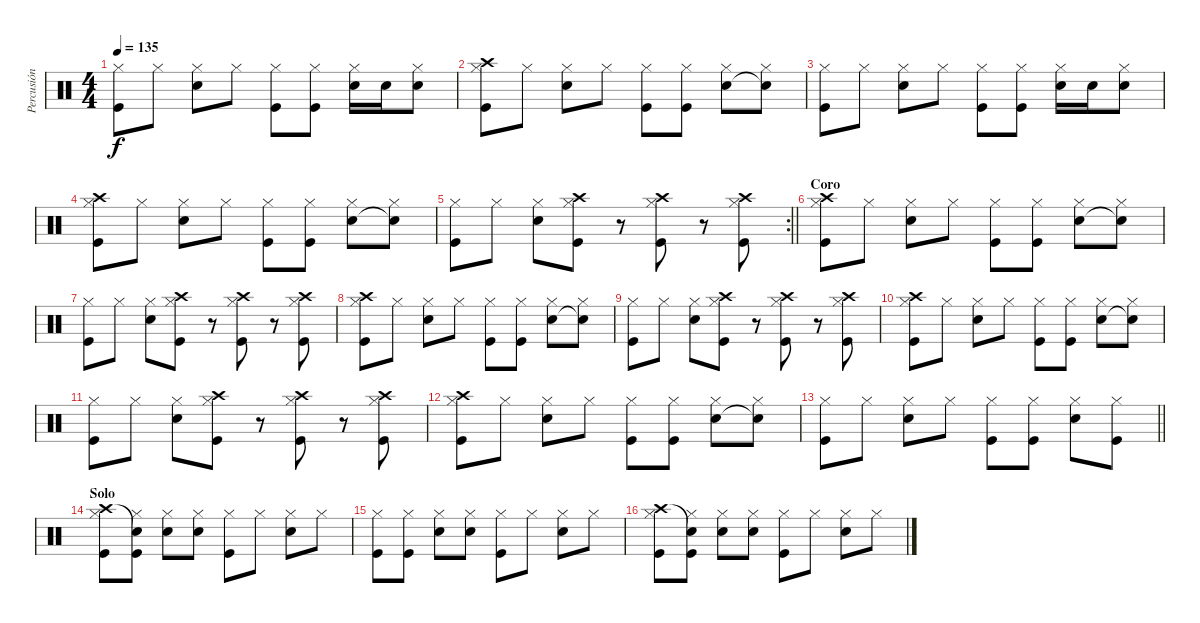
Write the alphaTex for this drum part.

\track ("Percusión" "Percusión") {instrument percussion}
\staff {score}
\articulation defaults
\ts (4 4)
\tempo 135
\clef neutral
\ks c
("Hi-Hat (closed)" "Kick (hit)").8{dy f} "Hi-Hat (closed)".8 ("Hi-Hat (closed)" "Snare (hit) 2").8 "Hi-Hat (closed)".8 ("Hi-Hat (closed)" "Kick (hit)").8 ("Hi-Hat (closed)" "Kick (hit)").8 ("Hi-Hat (closed)" "Snare (hit) 2").16 "Snare (hit) 2".16 ("Hi-Hat (closed)" "Snare (hit) 2").8 |
("Hi-Hat (closed)" "Crash high (hit)" "Kick (hit)").8 "Hi-Hat (closed)".8 ("Hi-Hat (closed)" "Snare (hit) 2").8 "Hi-Hat (closed)".8 ("Hi-Hat (closed)" "Kick (hit)").8 ("Hi-Hat (closed)" "Kick (hit)").8 ("Hi-Hat (closed)" "Snare (hit) 2").8 ("Hi-Hat (closed)" "Snare (hit)"{t}).8 |
("Hi-Hat (closed)" "Kick (hit)").8 "Hi-Hat (closed)".8 ("Hi-Hat (closed)" "Snare (hit) 2").8 "Hi-Hat (closed)".8 ("Hi-Hat (closed)" "Kick (hit)").8 ("Hi-Hat (closed)" "Kick (hit)").8 ("Hi-Hat (closed)" "Snare (hit) 2").16 "Snare (hit) 2".16 ("Hi-Hat (closed)" "Snare (hit) 2").8 |
("Hi-Hat (closed)" "Crash high (hit)" "Kick (hit)").8 "Hi-Hat (closed)".8 ("Hi-Hat (closed)" "Snare (hit) 2").8 "Hi-Hat (closed)".8 ("Hi-Hat (closed)" "Kick (hit)").8 ("Hi-Hat (closed)" "Kick (hit)").8 ("Hi-Hat (closed)" "Snare (hit) 2").8 ("Hi-Hat (closed)" "Snare (hit)"{t}).8 |
\rc 2
\barLineRight lightlight
("Hi-Hat (closed)" "Kick (hit)").8 "Hi-Hat (closed)".8 ("Hi-Hat (closed)" "Snare (hit) 2").8 ("Hi-Hat (closed)" "Crash high (hit)" "Kick (hit)").8 r.8 ("Hi-Hat (closed)" "Crash high (hit)" "Kick (hit)").8 r.8 ("Hi-Hat (closed)" "Crash high (hit)" "Kick (hit)").8 |
\section ("" "Coro")
("Hi-Hat (closed)" "Crash high (hit)" "Kick (hit)").8 "Hi-Hat (closed)".8 ("Hi-Hat (closed)" "Snare (hit) 2").8 "Hi-Hat (closed)".8 ("Hi-Hat (closed)" "Kick (hit)").8 ("Hi-Hat (closed)" "Kick (hit)").8 ("Hi-Hat (closed)" "Snare (hit) 2").8 ("Hi-Hat (closed)" "Snare (hit)"{t}).8 |
("Hi-Hat (closed)" "Kick (hit)").8 "Hi-Hat (closed)".8 ("Hi-Hat (closed)" "Snare (hit) 2").8 ("Hi-Hat (closed)" "Crash high (hit)" "Kick (hit)").8 r.8 ("Hi-Hat (closed)" "Crash high (hit)" "Kick (hit)").8 r.8 ("Hi-Hat (closed)" "Crash high (hit)" "Kick (hit)").8 |
("Hi-Hat (closed)" "Crash high (hit)" "Kick (hit)").8 "Hi-Hat (closed)".8 ("Hi-Hat (closed)" "Snare (hit) 2").8 "Hi-Hat (closed)".8 ("Hi-Hat (closed)" "Kick (hit)").8 ("Hi-Hat (closed)" "Kick (hit)").8 ("Hi-Hat (closed)" "Snare (hit) 2").8 ("Hi-Hat (closed)" "Snare (hit)"{t}).8 |
("Hi-Hat (closed)" "Kick (hit)").8 "Hi-Hat (closed)".8 ("Hi-Hat (closed)" "Snare (hit) 2").8 ("Hi-Hat (closed)" "Crash high (hit)" "Kick (hit)").8 r.8 ("Hi-Hat (closed)" "Crash high (hit)" "Kick (hit)").8 r.8 ("Hi-Hat (closed)" "Crash high (hit)" "Kick (hit)").8 |
("Hi-Hat (closed)" "Crash high (hit)" "Kick (hit)").8 "Hi-Hat (closed)".8 ("Hi-Hat (closed)" "Snare (hit) 2").8 "Hi-Hat (closed)".8 ("Hi-Hat (closed)" "Kick (hit)").8 ("Hi-Hat (closed)" "Kick (hit)").8 ("Hi-Hat (closed)" "Snare (hit) 2").8 ("Hi-Hat (closed)" "Snare (hit)"{t}).8 |
("Hi-Hat (closed)" "Kick (hit)").8 "Hi-Hat (closed)".8 ("Hi-Hat (closed)" "Snare (hit) 2").8 ("Hi-Hat (closed)" "Crash high (hit)" "Kick (hit)").8 r.8 ("Hi-Hat (closed)" "Crash high (hit)" "Kick (hit)").8 r.8 ("Hi-Hat (closed)" "Crash high (hit)" "Kick (hit)").8 |
("Hi-Hat (closed)" "Crash high (hit)" "Kick (hit)").8 "Hi-Hat (closed)".8 ("Hi-Hat (closed)" "Snare (hit) 2").8 "Hi-Hat (closed)".8 ("Hi-Hat (closed)" "Kick (hit)").8 ("Hi-Hat (closed)" "Kick (hit)").8 ("Hi-Hat (closed)" "Snare (hit) 2").8 ("Hi-Hat (closed)" "Snare (hit)"{t}).8 |
\barLineRight lightlight
("Hi-Hat (closed)" "Kick (hit)").8 "Hi-Hat (closed)".8 ("Hi-Hat (closed)" "Snare (hit) 2").8 "Hi-Hat (closed)".8 ("Hi-Hat (closed)" "Kick (hit)").8 ("Hi-Hat (closed)" "Kick (hit)").8 ("Hi-Hat (closed)" "Snare (hit) 2").8 ("Hi-Hat (closed)" "Kick (hit)").8 |
\section ("" "Solo")
("Hi-Hat (closed)" "Crash high (hit)" "Kick (hit)").8 ("Hi-Hat (closed)" "Snare (hit)"{t} "Kick (hit)").8 ("Hi-Hat (closed)" "Snare (hit) 2").8 ("Hi-Hat (closed)" "Snare (hit) 2").8 ("Hi-Hat (closed)" "Kick (hit)").8 "Hi-Hat (closed)".8 ("Hi-Hat (closed)" "Snare (hit) 2").8 "Hi-Hat (closed)".8 |
("Hi-Hat (closed)" "Kick (hit)").8 ("Hi-Hat (closed)" "Kick (hit)").8 ("Hi-Hat (closed)" "Snare (hit) 2").8 ("Hi-Hat (closed)" "Snare (hit) 2").8 ("Hi-Hat (closed)" "Kick (hit)").8 "Hi-Hat (closed)".8 ("Hi-Hat (closed)" "Snare (hit) 2").8 "Hi-Hat (closed)".8 |
("Hi-Hat (closed)" "Crash high (hit)" "Kick (hit)").8 ("Hi-Hat (closed)" "Snare (hit)"{t} "Kick (hit)").8 ("Hi-Hat (closed)" "Snare (hit) 2").8 ("Hi-Hat (closed)" "Snare (hit) 2").8 ("Hi-Hat (closed)" "Kick (hit)").8 "Hi-Hat (closed)".8 ("Hi-Hat (closed)" "Snare (hit) 2").8 "Hi-Hat (closed)".8
